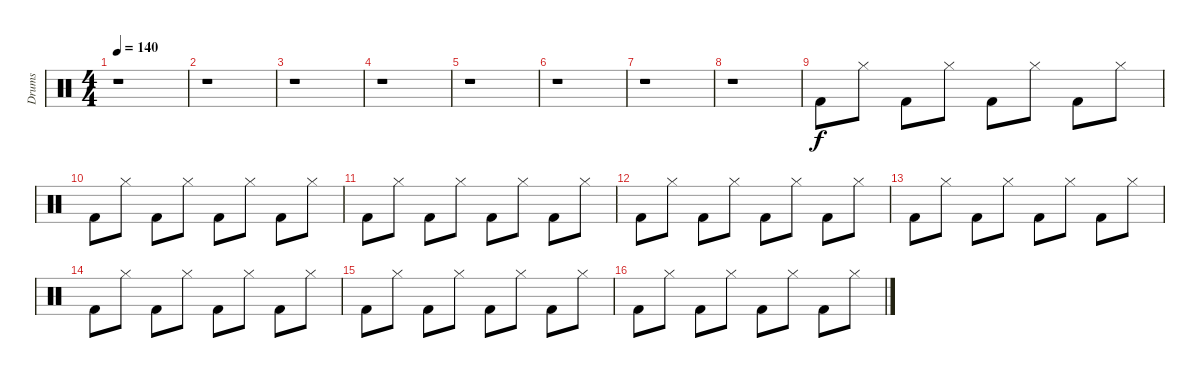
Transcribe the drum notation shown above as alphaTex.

\track ("Drums" "Drums") {instrument percussion}
\staff {score}
\articulation defaults
\ts (4 4)
\tempo 140
\clef neutral
\ks c
r.1{dy f} |
r.1 |
r.1 |
r.1 |
r.1 |
r.1 |
r.1 |
r.1 |
"Kick (hit) 2".8 "Hi-Hat (closed)".8 "Kick (hit) 2".8 "Hi-Hat (closed)".8 "Kick (hit) 2".8 "Hi-Hat (closed)".8 "Kick (hit) 2".8 "Hi-Hat (closed)".8 |
"Kick (hit) 2".8 "Hi-Hat (closed)".8 "Kick (hit) 2".8 "Hi-Hat (closed)".8 "Kick (hit) 2".8 "Hi-Hat (closed)".8 "Kick (hit) 2".8 "Hi-Hat (closed)".8 |
"Kick (hit) 2".8 "Hi-Hat (closed)".8 "Kick (hit) 2".8 "Hi-Hat (closed)".8 "Kick (hit) 2".8 "Hi-Hat (closed)".8 "Kick (hit) 2".8 "Hi-Hat (closed)".8 |
"Kick (hit) 2".8 "Hi-Hat (closed)".8 "Kick (hit) 2".8 "Hi-Hat (closed)".8 "Kick (hit) 2".8 "Hi-Hat (closed)".8 "Kick (hit) 2".8 "Hi-Hat (closed)".8 |
"Kick (hit) 2".8 "Hi-Hat (closed)".8 "Kick (hit) 2".8 "Hi-Hat (closed)".8 "Kick (hit) 2".8 "Hi-Hat (closed)".8 "Kick (hit) 2".8 "Hi-Hat (closed)".8 |
"Kick (hit) 2".8 "Hi-Hat (closed)".8 "Kick (hit) 2".8 "Hi-Hat (closed)".8 "Kick (hit) 2".8 "Hi-Hat (closed)".8 "Kick (hit) 2".8 "Hi-Hat (closed)".8 |
"Kick (hit) 2".8 "Hi-Hat (closed)".8 "Kick (hit) 2".8 "Hi-Hat (closed)".8 "Kick (hit) 2".8 "Hi-Hat (closed)".8 "Kick (hit) 2".8 "Hi-Hat (closed)".8 |
"Kick (hit) 2".8 "Hi-Hat (closed)".8 "Kick (hit) 2".8 "Hi-Hat (closed)".8 "Kick (hit) 2".8 "Hi-Hat (closed)".8 "Kick (hit) 2".8 "Hi-Hat (closed)".8
